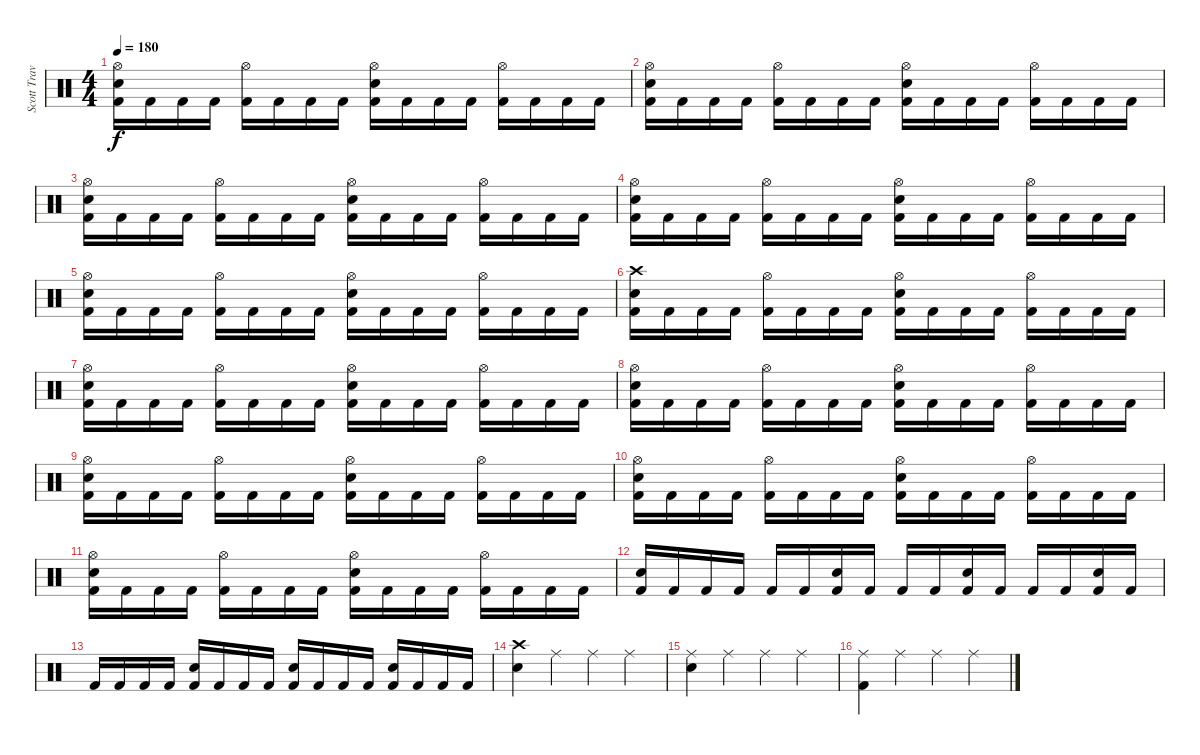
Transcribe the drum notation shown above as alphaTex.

\track ("Scott Travis" "Scott Trav") {instrument percussion}
\staff {score}
\articulation defaults
\ts (4 4)
\tempo 180
\clef neutral
\ks c
("Hi-Hat (open)" "Snare (hit) 2" "Kick (hit) 2").16{dy f} "Kick (hit) 2".16 "Kick (hit) 2".16 "Kick (hit) 2".16 ("Hi-Hat (open)" "Kick (hit) 2").16 "Kick (hit) 2".16 "Kick (hit) 2".16 "Kick (hit) 2".16 ("Hi-Hat (open)" "Snare (hit) 2" "Kick (hit) 2").16 "Kick (hit) 2".16 "Kick (hit) 2".16 "Kick (hit) 2".16 ("Hi-Hat (open)" "Kick (hit) 2").16 "Kick (hit) 2".16 "Kick (hit) 2".16 "Kick (hit) 2".16 |
("Hi-Hat (open)" "Snare (hit) 2" "Kick (hit) 2").16 "Kick (hit) 2".16 "Kick (hit) 2".16 "Kick (hit) 2".16 ("Hi-Hat (open)" "Kick (hit) 2").16 "Kick (hit) 2".16 "Kick (hit) 2".16 "Kick (hit) 2".16 ("Hi-Hat (open)" "Snare (hit) 2" "Kick (hit) 2").16 "Kick (hit) 2".16 "Kick (hit) 2".16 "Kick (hit) 2".16 ("Hi-Hat (open)" "Kick (hit) 2").16 "Kick (hit) 2".16 "Kick (hit) 2".16 "Kick (hit) 2".16 |
("Hi-Hat (open)" "Snare (hit) 2" "Kick (hit) 2").16 "Kick (hit) 2".16 "Kick (hit) 2".16 "Kick (hit) 2".16 ("Hi-Hat (open)" "Kick (hit) 2").16 "Kick (hit) 2".16 "Kick (hit) 2".16 "Kick (hit) 2".16 ("Hi-Hat (open)" "Snare (hit) 2" "Kick (hit) 2").16 "Kick (hit) 2".16 "Kick (hit) 2".16 "Kick (hit) 2".16 ("Hi-Hat (open)" "Kick (hit) 2").16 "Kick (hit) 2".16 "Kick (hit) 2".16 "Kick (hit) 2".16 |
("Hi-Hat (open)" "Snare (hit) 2" "Kick (hit) 2").16 "Kick (hit) 2".16 "Kick (hit) 2".16 "Kick (hit) 2".16 ("Hi-Hat (open)" "Kick (hit) 2").16 "Kick (hit) 2".16 "Kick (hit) 2".16 "Kick (hit) 2".16 ("Hi-Hat (open)" "Snare (hit) 2" "Kick (hit) 2").16 "Kick (hit) 2".16 "Kick (hit) 2".16 "Kick (hit) 2".16 ("Hi-Hat (open)" "Kick (hit) 2").16 "Kick (hit) 2".16 "Kick (hit) 2".16 "Kick (hit) 2".16 |
("Hi-Hat (open)" "Snare (hit) 2" "Kick (hit) 2").16 "Kick (hit) 2".16 "Kick (hit) 2".16 "Kick (hit) 2".16 ("Hi-Hat (open)" "Kick (hit) 2").16 "Kick (hit) 2".16 "Kick (hit) 2".16 "Kick (hit) 2".16 ("Hi-Hat (open)" "Snare (hit) 2" "Kick (hit) 2").16 "Kick (hit) 2".16 "Kick (hit) 2".16 "Kick (hit) 2".16 ("Hi-Hat (open)" "Kick (hit) 2").16 "Kick (hit) 2".16 "Kick (hit) 2".16 "Kick (hit) 2".16 |
("Crash high (hit)" "Snare (hit) 2" "Kick (hit) 2").16 "Kick (hit) 2".16 "Kick (hit) 2".16 "Kick (hit) 2".16 ("Hi-Hat (open)" "Kick (hit) 2").16 "Kick (hit) 2".16 "Kick (hit) 2".16 "Kick (hit) 2".16 ("Hi-Hat (open)" "Snare (hit) 2" "Kick (hit) 2").16 "Kick (hit) 2".16 "Kick (hit) 2".16 "Kick (hit) 2".16 ("Hi-Hat (open)" "Kick (hit) 2").16 "Kick (hit) 2".16 "Kick (hit) 2".16 "Kick (hit) 2".16 |
("Hi-Hat (open)" "Snare (hit) 2" "Kick (hit) 2").16 "Kick (hit) 2".16 "Kick (hit) 2".16 "Kick (hit) 2".16 ("Hi-Hat (open)" "Kick (hit) 2").16 "Kick (hit) 2".16 "Kick (hit) 2".16 "Kick (hit) 2".16 ("Hi-Hat (open)" "Snare (hit) 2" "Kick (hit) 2").16 "Kick (hit) 2".16 "Kick (hit) 2".16 "Kick (hit) 2".16 ("Hi-Hat (open)" "Kick (hit) 2").16 "Kick (hit) 2".16 "Kick (hit) 2".16 "Kick (hit) 2".16 |
("Hi-Hat (open)" "Snare (hit) 2" "Kick (hit) 2").16 "Kick (hit) 2".16 "Kick (hit) 2".16 "Kick (hit) 2".16 ("Hi-Hat (open)" "Kick (hit) 2").16 "Kick (hit) 2".16 "Kick (hit) 2".16 "Kick (hit) 2".16 ("Hi-Hat (open)" "Snare (hit) 2" "Kick (hit) 2").16 "Kick (hit) 2".16 "Kick (hit) 2".16 "Kick (hit) 2".16 ("Hi-Hat (open)" "Kick (hit) 2").16 "Kick (hit) 2".16 "Kick (hit) 2".16 "Kick (hit) 2".16 |
("Hi-Hat (open)" "Snare (hit) 2" "Kick (hit) 2").16 "Kick (hit) 2".16 "Kick (hit) 2".16 "Kick (hit) 2".16 ("Hi-Hat (open)" "Kick (hit) 2").16 "Kick (hit) 2".16 "Kick (hit) 2".16 "Kick (hit) 2".16 ("Hi-Hat (open)" "Snare (hit) 2" "Kick (hit) 2").16 "Kick (hit) 2".16 "Kick (hit) 2".16 "Kick (hit) 2".16 ("Hi-Hat (open)" "Kick (hit) 2").16 "Kick (hit) 2".16 "Kick (hit) 2".16 "Kick (hit) 2".16 |
("Hi-Hat (open)" "Snare (hit) 2" "Kick (hit) 2").16 "Kick (hit) 2".16 "Kick (hit) 2".16 "Kick (hit) 2".16 ("Hi-Hat (open)" "Kick (hit) 2").16 "Kick (hit) 2".16 "Kick (hit) 2".16 "Kick (hit) 2".16 ("Hi-Hat (open)" "Snare (hit) 2" "Kick (hit) 2").16 "Kick (hit) 2".16 "Kick (hit) 2".16 "Kick (hit) 2".16 ("Hi-Hat (open)" "Kick (hit) 2").16 "Kick (hit) 2".16 "Kick (hit) 2".16 "Kick (hit) 2".16 |
("Hi-Hat (open)" "Snare (hit) 2" "Kick (hit) 2").16 "Kick (hit) 2".16 "Kick (hit) 2".16 "Kick (hit) 2".16 ("Hi-Hat (open)" "Kick (hit) 2").16 "Kick (hit) 2".16 "Kick (hit) 2".16 "Kick (hit) 2".16 ("Hi-Hat (open)" "Snare (hit) 2" "Kick (hit) 2").16 "Kick (hit) 2".16 "Kick (hit) 2".16 "Kick (hit) 2".16 ("Hi-Hat (open)" "Kick (hit) 2").16 "Kick (hit) 2".16 "Kick (hit) 2".16 "Kick (hit) 2".16 |
("Snare (hit) 2" "Kick (hit) 2").16 "Kick (hit) 2".16 "Kick (hit) 2".16 "Kick (hit) 2".16 "Kick (hit) 2".16 "Kick (hit) 2".16 ("Snare (hit) 2" "Kick (hit) 2").16 "Kick (hit) 2".16 "Kick (hit) 2".16 "Kick (hit) 2".16 ("Snare (hit) 2" "Kick (hit) 2").16 "Kick (hit) 2".16 "Kick (hit) 2".16 "Kick (hit) 2".16 ("Snare (hit) 2" "Kick (hit) 2").16 "Kick (hit) 2".16 |
"Kick (hit) 2".16 "Kick (hit) 2".16 "Kick (hit) 2".16 "Kick (hit) 2".16 ("Snare (hit) 2" "Kick (hit) 2").16 "Kick (hit) 2".16 "Kick (hit) 2".16 "Kick (hit) 2".16 ("Snare (hit) 2" "Kick (hit) 2").16 "Kick (hit) 2".16 "Kick (hit) 2".16 "Kick (hit) 2".16 ("Snare (hit) 2" "Kick (hit) 2").16 "Kick (hit) 2".16 "Kick (hit) 2".16 "Kick (hit) 2".16 |
("Crash high (hit)" "Snare (hit) 2").4 "Ride (middle)".4 "Ride (middle)".4 "Ride (middle)".4 |
("Ride (middle)" "Snare (hit) 2").4 "Ride (middle)".4 "Ride (middle)".4 "Ride (middle)".4 |
("Ride (middle)" "Kick (hit) 2").4 "Ride (middle)".4 "Ride (middle)".4 "Ride (middle)".4
